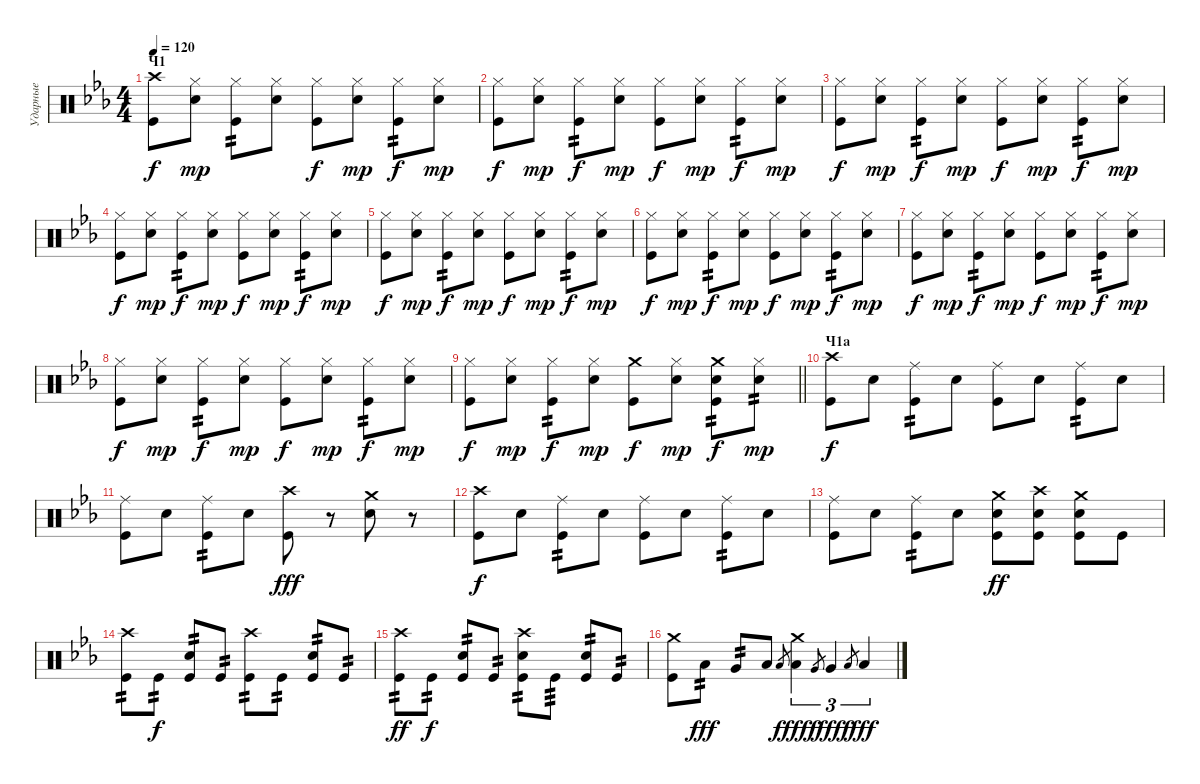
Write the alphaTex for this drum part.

\track ("Ударные" "Ударные") {instrument percussion}
\staff {score}
\articulation defaults
\ts (4 4)
\section ("" "Ч1")
\tempo 120
\clef neutral
\ks cminor
("Crash high (hit)" "Kick (hit)").8{dy f} ("Hi-Hat (closed)" "Snare (hit) 2").8{dy mp} ("Hi-Hat (closed)" "Kick (hit)").8{tp 2} ("Hi-Hat (closed)" "Snare (hit) 2").8 ("Hi-Hat (closed)" "Kick (hit)").8{dy f} ("Hi-Hat (closed)" "Snare (hit) 2").8{dy mp} ("Hi-Hat (closed)" "Kick (hit)").8{tp 2 dy f} ("Hi-Hat (closed)" "Snare (hit) 2").8{dy mp} |
("Hi-Hat (closed)" "Kick (hit)").8{dy f} ("Hi-Hat (closed)" "Snare (hit) 2").8{dy mp} ("Hi-Hat (closed)" "Kick (hit)").8{tp 2 dy f} ("Hi-Hat (closed)" "Snare (hit) 2").8{dy mp} ("Hi-Hat (closed)" "Kick (hit)").8{dy f} ("Hi-Hat (closed)" "Snare (hit) 2").8{dy mp} ("Hi-Hat (closed)" "Kick (hit)").8{tp 2 dy f} ("Hi-Hat (closed)" "Snare (hit) 2").8{dy mp} |
("Hi-Hat (closed)" "Kick (hit)").8{dy f} ("Hi-Hat (closed)" "Snare (hit) 2").8{dy mp} ("Hi-Hat (closed)" "Kick (hit)").8{tp 2 dy f} ("Hi-Hat (closed)" "Snare (hit) 2").8{dy mp} ("Hi-Hat (closed)" "Kick (hit)").8{dy f} ("Hi-Hat (closed)" "Snare (hit) 2").8{dy mp} ("Hi-Hat (closed)" "Kick (hit)").8{tp 2 dy f} ("Hi-Hat (closed)" "Snare (hit) 2").8{dy mp} |
("Hi-Hat (closed)" "Kick (hit)").8{dy f} ("Hi-Hat (closed)" "Snare (hit) 2").8{dy mp} ("Hi-Hat (closed)" "Kick (hit)").8{tp 2 dy f} ("Hi-Hat (closed)" "Snare (hit) 2").8{dy mp} ("Hi-Hat (closed)" "Kick (hit)").8{dy f} ("Hi-Hat (closed)" "Snare (hit) 2").8{dy mp} ("Hi-Hat (closed)" "Kick (hit)").8{tp 2 dy f} ("Hi-Hat (closed)" "Snare (hit) 2").8{dy mp} |
("Hi-Hat (closed)" "Kick (hit)").8{dy f} ("Hi-Hat (closed)" "Snare (hit) 2").8{dy mp} ("Hi-Hat (closed)" "Kick (hit)").8{tp 2 dy f} ("Hi-Hat (closed)" "Snare (hit) 2").8{dy mp} ("Hi-Hat (closed)" "Kick (hit)").8{dy f} ("Hi-Hat (closed)" "Snare (hit) 2").8{dy mp} ("Hi-Hat (closed)" "Kick (hit)").8{tp 2 dy f} ("Hi-Hat (closed)" "Snare (hit) 2").8{dy mp} |
("Hi-Hat (closed)" "Kick (hit)").8{dy f} ("Hi-Hat (closed)" "Snare (hit) 2").8{dy mp} ("Hi-Hat (closed)" "Kick (hit)").8{tp 2 dy f} ("Hi-Hat (closed)" "Snare (hit) 2").8{dy mp} ("Hi-Hat (closed)" "Kick (hit)").8{dy f} ("Hi-Hat (closed)" "Snare (hit) 2").8{dy mp} ("Hi-Hat (closed)" "Kick (hit)").8{tp 2 dy f} ("Hi-Hat (closed)" "Snare (hit) 2").8{dy mp} |
("Hi-Hat (closed)" "Kick (hit)").8{dy f} ("Hi-Hat (closed)" "Snare (hit) 2").8{dy mp} ("Hi-Hat (closed)" "Kick (hit)").8{tp 2 dy f} ("Hi-Hat (closed)" "Snare (hit) 2").8{dy mp} ("Hi-Hat (closed)" "Kick (hit)").8{dy f} ("Hi-Hat (closed)" "Snare (hit) 2").8{dy mp} ("Hi-Hat (closed)" "Kick (hit)").8{tp 2 dy f} ("Hi-Hat (closed)" "Snare (hit) 2").8{dy mp} |
("Hi-Hat (closed)" "Kick (hit)").8{dy f} ("Hi-Hat (closed)" "Snare (hit) 2").8{dy mp} ("Hi-Hat (closed)" "Kick (hit)").8{tp 2 dy f} ("Hi-Hat (closed)" "Snare (hit) 2").8{dy mp} ("Hi-Hat (closed)" "Kick (hit)").8{dy f} ("Hi-Hat (closed)" "Snare (hit) 2").8{dy mp} ("Hi-Hat (closed)" "Kick (hit)").8{tp 2 dy f} ("Hi-Hat (closed)" "Snare (hit) 2").8{dy mp} |
\barLineRight lightlight
("Hi-Hat (closed)" "Kick (hit)").8{dy f} ("Hi-Hat (closed)" "Snare (hit) 2").8{dy mp} ("Hi-Hat (closed)" "Kick (hit)").8{tp 2 dy f} ("Hi-Hat (closed)" "Snare (hit) 2").8{dy mp} ("Crash medium (hit)" "Kick (hit)").8{dy f} ("Hi-Hat (closed)" "Snare (hit) 2").8{dy mp} ("Crash medium (hit)" "Snare (hit) 2" "Kick (hit)").8{tp 2 dy f} ("Hi-Hat (closed)" "Snare (hit) 2").8{tp 2 dy mp} |
\section ("" "Ч1а")
("Crash high (hit)" "Kick (hit)").8{dy f} "Snare (hit) 2".8 ("Ride (middle)" "Kick (hit)").8{tp 2} "Snare (hit) 2".8 ("Ride (middle)" "Kick (hit)").8 "Snare (hit) 2".8 ("Ride (middle)" "Kick (hit)").8{tp 2} "Snare (hit) 2".8 |
("Ride (middle)" "Kick (hit)").8 "Snare (hit) 2".8 ("Ride (middle)" "Kick (hit)").8{tp 2} "Snare (hit) 2".8 ("Crash high (hit)" "Kick (hit)").8{dy fff} r.8 ("Crash medium (hit)" "Snare (hit) 2").8 r.8 |
("Crash high (hit)" "Kick (hit)").8{dy f} "Snare (hit) 2".8 ("Ride (middle)" "Kick (hit)").8{tp 2} "Snare (hit) 2".8 ("Ride (middle)" "Kick (hit)").8 "Snare (hit) 2".8 ("Ride (middle)" "Kick (hit)").8{tp 2} "Snare (hit) 2".8 |
("Ride (middle)" "Kick (hit)").8 "Snare (hit) 2".8 ("Ride (middle)" "Kick (hit)").8{tp 2} "Snare (hit) 2".8 ("Crash medium (hit)" "Snare (hit) 2" "Kick (hit)").8{dy ff} ("Crash high (hit)" "Snare (hit) 2" "Kick (hit)").8 ("Crash medium (hit)" "Snare (hit) 2" "Kick (hit)").8 "Kick (hit)".8 |
("Crash high (hit)" "Kick (hit)").8{tp 2} "Kick (hit)".8{tp 2 dy f} ("Snare (hit) 2" "Kick (hit)").8{tp 2} "Kick (hit)".8{tp 2} ("Crash high (hit)" "Kick (hit)").8{tp 2} "Kick (hit)".8{tp 2} ("Snare (hit) 2" "Kick (hit)").8{tp 2} "Kick (hit)".8{tp 2} |
("Crash high (hit)" "Kick (hit)").8{tp 2 dy ff} "Kick (hit)".8{tp 2 dy f} ("Snare (hit) 2" "Kick (hit)").8{tp 2} "Kick (hit)".8{tp 2} ("Crash high (hit)" "Snare (hit) 2" "Kick (hit)").8{tp 2} "Kick (hit)".8{tp 3} ("Snare (hit) 2" "Kick (hit)").8{tp 2} "Kick (hit)".8{tp 2} |
("Crash medium (hit)" "Kick (hit)").8 "Low Tom (hit)".8{tp 2 dy fff} "Very Low Tom (hit)".8{tp 2} "Low Floor Tom (hit)".8 "Low Tom (hit)".8{gr dy f} ("Crash medium (hit)" "Low Tom (hit)").4{tu (3 2) dy fff} "Very Low Tom (hit)".8{gr dy f} "Very Low Tom (hit)".4{tu (3 2) dy fff} "Low Floor Tom (hit)".8{gr dy f} "Low Floor Tom (hit)".4{tu (3 2) dy fff}
